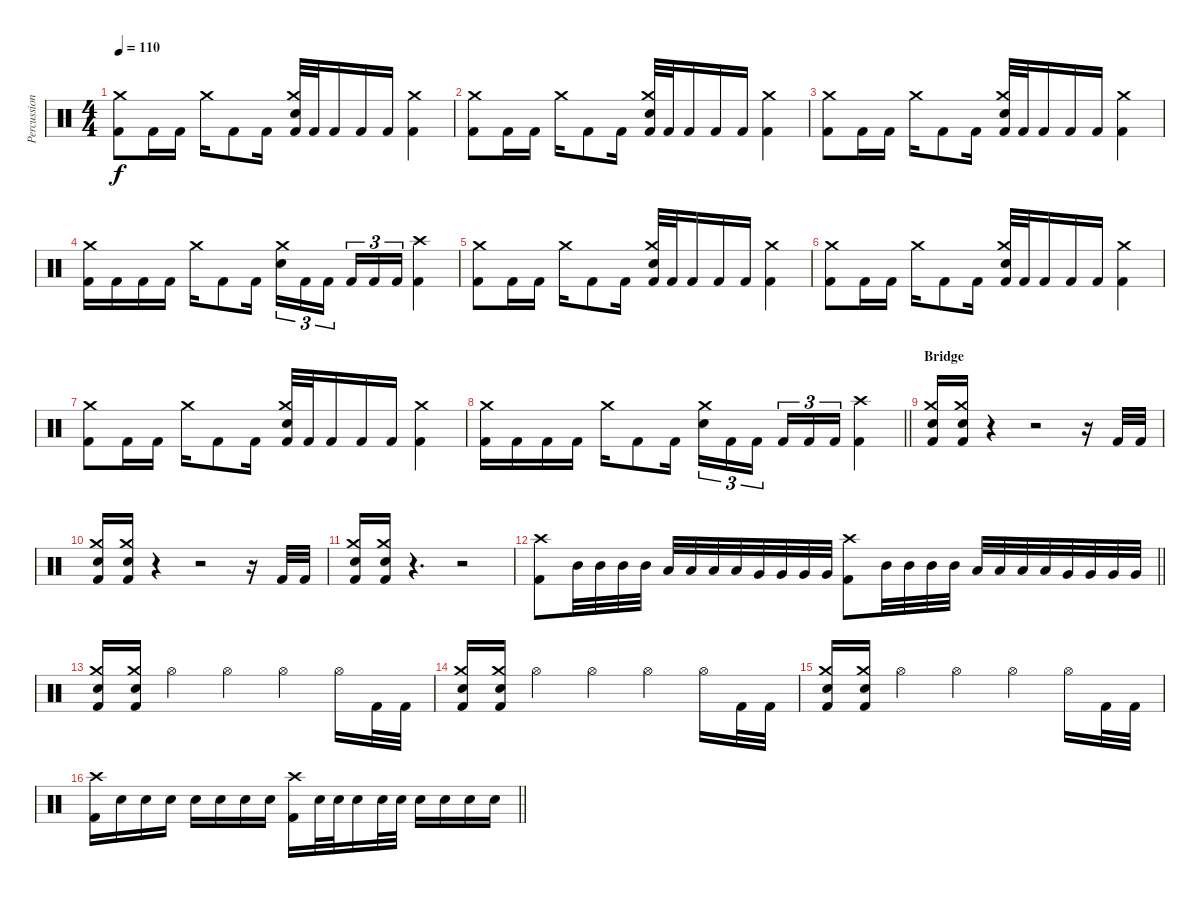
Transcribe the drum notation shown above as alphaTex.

\track ("Percussion" "Percussion") {instrument percussion}
\staff {score}
\articulation defaults
\ts (4 4)
\tempo 110
\clef neutral
\ks c
("Kick (hit) 2" "Crash medium (hit)").8{dy f} "Kick (hit) 2".16 "Kick (hit) 2".16 "Crash medium (hit)".16 "Kick (hit) 2".8 "Kick (hit) 2".16 ("Snare (hit) 2" "Kick (hit) 2" "Crash medium (hit)").32 "Kick (hit) 2".32 "Kick (hit) 2".16 "Kick (hit) 2".16 "Kick (hit) 2".16 ("Kick (hit) 2" "Crash medium (hit)").4 |
("Kick (hit) 2" "Crash medium (hit)").8 "Kick (hit) 2".16 "Kick (hit) 2".16 "Crash medium (hit)".16 "Kick (hit) 2".8 "Kick (hit) 2".16 ("Snare (hit) 2" "Kick (hit) 2" "Crash medium (hit)").32 "Kick (hit) 2".32 "Kick (hit) 2".16 "Kick (hit) 2".16 "Kick (hit) 2".16 ("Kick (hit) 2" "Crash medium (hit)").4 |
("Kick (hit) 2" "Crash medium (hit)").8 "Kick (hit) 2".16 "Kick (hit) 2".16 "Crash medium (hit)".16 "Kick (hit) 2".8 "Kick (hit) 2".16 ("Snare (hit) 2" "Kick (hit) 2" "Crash medium (hit)").32 "Kick (hit) 2".32 "Kick (hit) 2".16 "Kick (hit) 2".16 "Kick (hit) 2".16 ("Kick (hit) 2" "Crash medium (hit)").4 |
("Kick (hit) 2" "Crash medium (hit)").16 "Kick (hit) 2".16 "Kick (hit) 2".16 "Kick (hit) 2".16 "Crash medium (hit)".16 "Kick (hit) 2".8 "Kick (hit) 2".16 ("Snare (hit) 2" "Crash medium (hit)").16{tu (3 2)} "Kick (hit) 2".16{tu (3 2)} "Kick (hit) 2".16{tu (3 2)} "Kick (hit) 2".16{tu (3 2)} "Kick (hit) 2".16{tu (3 2)} "Kick (hit) 2".16{tu (3 2)} ("Kick (hit) 2" "Crash high (hit)").4 |
("Kick (hit) 2" "Crash medium (hit)").8 "Kick (hit) 2".16 "Kick (hit) 2".16 "Crash medium (hit)".16 "Kick (hit) 2".8 "Kick (hit) 2".16 ("Snare (hit) 2" "Kick (hit) 2" "Crash medium (hit)").32 "Kick (hit) 2".32 "Kick (hit) 2".16 "Kick (hit) 2".16 "Kick (hit) 2".16 ("Kick (hit) 2" "Crash medium (hit)").4 |
("Kick (hit) 2" "Crash medium (hit)").8 "Kick (hit) 2".16 "Kick (hit) 2".16 "Crash medium (hit)".16 "Kick (hit) 2".8 "Kick (hit) 2".16 ("Snare (hit) 2" "Kick (hit) 2" "Crash medium (hit)").32 "Kick (hit) 2".32 "Kick (hit) 2".16 "Kick (hit) 2".16 "Kick (hit) 2".16 ("Kick (hit) 2" "Crash medium (hit)").4 |
("Kick (hit) 2" "Crash medium (hit)").8 "Kick (hit) 2".16 "Kick (hit) 2".16 "Crash medium (hit)".16 "Kick (hit) 2".8 "Kick (hit) 2".16 ("Snare (hit) 2" "Kick (hit) 2" "Crash medium (hit)").32 "Kick (hit) 2".32 "Kick (hit) 2".16 "Kick (hit) 2".16 "Kick (hit) 2".16 ("Kick (hit) 2" "Crash medium (hit)").4 |
\barLineRight lightlight
("Kick (hit) 2" "Crash medium (hit)").16 "Kick (hit) 2".16 "Kick (hit) 2".16 "Kick (hit) 2".16 "Crash medium (hit)".16 "Kick (hit) 2".8 "Kick (hit) 2".16 ("Snare (hit) 2" "Crash medium (hit)").16{tu (3 2)} "Kick (hit) 2".16{tu (3 2)} "Kick (hit) 2".16{tu (3 2)} "Kick (hit) 2".16{tu (3 2)} "Kick (hit) 2".16{tu (3 2)} "Kick (hit) 2".16{tu (3 2)} ("Kick (hit) 2" "Crash high (hit)").4 |
\section ("" "Bridge")
("Snare (hit) 2" "Kick (hit) 2" "Crash medium (hit)").16 ("Snare (hit) 2" "Kick (hit) 2" "Crash medium (hit)").16 r.4 r.2 r.16 "Kick (hit) 2".32 "Kick (hit) 2".32 |
("Snare (hit) 2" "Kick (hit) 2" "Crash medium (hit)").16 ("Snare (hit) 2" "Kick (hit) 2" "Crash medium (hit)").16 r.4 r.2 r.16 "Kick (hit) 2".32 "Kick (hit) 2".32 |
("Snare (hit) 2" "Kick (hit) 2" "Crash medium (hit)").16 ("Snare (hit) 2" "Kick (hit) 2" "Crash medium (hit)").16 r.4{d} r.2 |
\barLineRight lightlight
("Kick (hit) 2" "Crash high (hit)").8 "Mid Tom (hit)".32 "Mid Tom (hit)".32 "Mid Tom (hit)".32 "Mid Tom (hit)".32 "Low Tom (hit)".32 "Low Tom (hit)".32 "Low Tom (hit)".32 "Low Tom (hit)".32 "Very Low Tom (hit)".32 "Very Low Tom (hit)".32 "Very Low Tom (hit)".32 "Very Low Tom (hit)".32 ("Kick (hit) 2" "Crash high (hit)").8 "Mid Tom (hit)".32 "Mid Tom (hit)".32 "Mid Tom (hit)".32 "Mid Tom (hit)".32 "Low Tom (hit)".32 "Low Tom (hit)".32 "Low Tom (hit)".32 "Low Tom (hit)".32 "Very Low Tom (hit)".32 "Very Low Tom (hit)".32 "Very Low Tom (hit)".32 "Very Low Tom (hit)".32 |
("Snare (hit) 2" "Kick (hit) 2" "Crash medium (hit)").16 ("Snare (hit) 2" "Kick (hit) 2" "Crash medium (hit)").16 "Hi-Hat (open)".4 "Hi-Hat (open)".4 "Hi-Hat (open)".4 "Hi-Hat (open)".16 "Kick (hit) 2".32 "Kick (hit) 2".32 |
("Snare (hit) 2" "Kick (hit) 2" "Crash medium (hit)").16 ("Snare (hit) 2" "Kick (hit) 2" "Crash medium (hit)").16 "Hi-Hat (open)".4 "Hi-Hat (open)".4 "Hi-Hat (open)".4 "Hi-Hat (open)".16 "Kick (hit) 2".32 "Kick (hit) 2".32 |
("Snare (hit) 2" "Kick (hit) 2" "Crash medium (hit)").16 ("Snare (hit) 2" "Kick (hit) 2" "Crash medium (hit)").16 "Hi-Hat (open)".4 "Hi-Hat (open)".4 "Hi-Hat (open)".4 "Hi-Hat (open)".16 "Kick (hit) 2".32 "Kick (hit) 2".32 |
\barLineRight lightlight
("Kick (hit) 2" "Crash high (hit)").16 "Snare (hit) 2".16 "Snare (hit) 2".16 "Snare (hit) 2".16 "Snare (hit) 2".16 "Snare (hit) 2".16 "Snare (hit) 2".16 "Snare (hit) 2".16 ("Kick (hit) 2" "Crash high (hit)").16 "Snare (hit) 2".32 "Snare (hit) 2".32 "Snare (hit) 2".16 "Snare (hit) 2".32 "Snare (hit) 2".32 "Snare (hit) 2".16 "Snare (hit) 2".16 "Snare (hit) 2".16 "Snare (hit) 2".16
